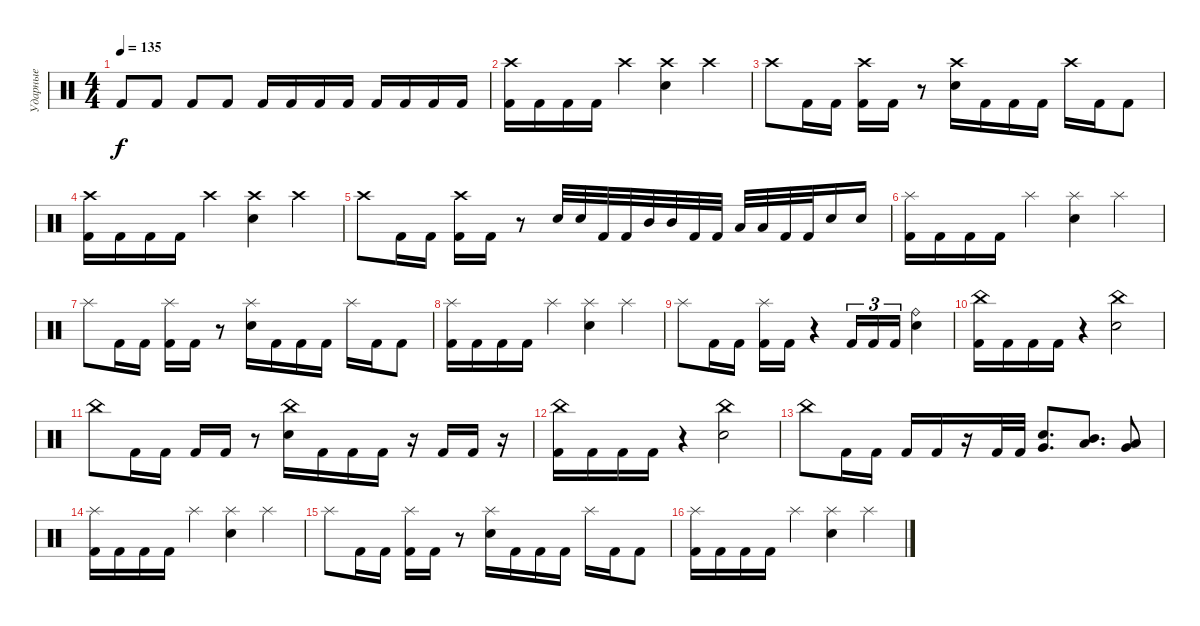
\track ("Ударные" "Ударные") {instrument percussion}
\staff {score}
\articulation defaults
\ts (4 4)
\tempo 135
\clef neutral
\ks c "Kick (hit) 2".8{dy f} "Kick (hit) 2".8 "Kick (hit) 2".8 "Kick (hit) 2".8 "Kick (hit) 2".16 "Kick (hit) 2".16 "Kick (hit) 2".16 "Kick (hit) 2".16 "Kick (hit) 2".16 "Kick (hit) 2".16 "Kick (hit) 2".16 "Kick (hit) 2".16
|
("Crash high (hit)" "Kick (hit) 2").16 "Kick (hit) 2".16 "Kick (hit) 2".16 "Kick (hit) 2".16 "Crash high (hit)".4 ("Crash high (hit)" "Electric Snare (hit)").4 "Crash high (hit)".4 |
"Crash high (hit)".8 "Kick (hit) 2".16 "Kick (hit) 2".16 ("Crash high (hit)" "Kick (hit) 2").16 "Kick (hit) 2".16 r.8 ("Crash high (hit)" "Electric Snare (hit)").16 "Kick (hit) 2".16 "Kick (hit) 2".16 "Kick (hit) 2".16 "Crash high (hit)".16 "Kick (hit) 2".16 "Kick (hit) 2".8 |
("Crash high (hit)" "Kick (hit) 2").16 "Kick (hit) 2".16 "Kick (hit) 2".16 "Kick (hit) 2".16 "Crash high (hit)".4 ("Crash high (hit)" "Electric Snare (hit)").4 "Crash high (hit)".4 |
"Crash high (hit)".8 "Kick (hit) 2".16 "Kick (hit) 2".16 ("Crash high (hit)" "Kick (hit) 2").16 "Kick (hit) 2".16 r.8 "Electric Snare (hit)".32 "Electric Snare (hit)".32 "Kick (hit) 2".32 "Kick (hit) 2".32 "Mid Tom (hit)".32 "Mid Tom (hit)".32 "Kick (hit) 2".32 "Kick (hit) 2".32 "Low Tom (hit)".32 "Low Tom (hit)".32 "Kick (hit) 2".32 "Kick (hit) 2".32 "Electric Snare (hit)".16 "Electric Snare (hit)".16 |
("Splash (hit)" "Kick (hit) 2").16 "Kick (hit) 2".16 "Kick (hit) 2".16 "Kick (hit) 2".16 "Splash (hit)".4 ("Splash (hit)" "Electric Snare (hit)").4 "Splash (hit)".4 |
"Splash (hit)".8 "Kick (hit) 2".16 "Kick (hit) 2".16 ("Splash (hit)" "Kick (hit) 2").16 "Kick (hit) 2".16 r.8 ("Splash (hit)" "Electric Snare (hit)").16 "Kick (hit) 2".16 "Kick (hit) 2".16 "Kick (hit) 2".16 "Splash (hit)".16 "Kick (hit) 2".16 "Kick (hit) 2".8 |
("Splash (hit)" "Kick (hit) 2").16 "Kick (hit) 2".16 "Kick (hit) 2".16 "Kick (hit) 2".16 "Splash (hit)".4 ("Splash (hit)" "Electric Snare (hit)").4 "Splash (hit)".4 |
"Splash (hit)".8 "Kick (hit) 2".16 "Kick (hit) 2".16 ("Splash (hit)" "Kick (hit) 2").16 "Kick (hit) 2".16 r.4 "Kick (hit) 2".16{tu (3 2)} "Kick (hit) 2".16{tu (3 2)} "Kick (hit) 2".16{tu (3 2)} ("Ride (bell)" "Electric Snare (hit)").4 |
("China (hit)" "Kick (hit) 2").16 "Kick (hit) 2".16 "Kick (hit) 2".16 "Kick (hit) 2".16 r.4 ("China (hit)" "Electric Snare (hit)").2 |
"China (hit)".8 "Kick (hit) 2".16 "Kick (hit) 2".16 "Kick (hit) 2".16 "Kick (hit) 2".16 r.8 ("China (hit)" "Electric Snare (hit)").16 "Kick (hit) 2".16 "Kick (hit) 2".16 "Kick (hit) 2".16 r.16 "Kick (hit) 2".16 "Kick (hit) 2".16 r.16 |
("China (hit)" "Kick (hit) 2").16 "Kick (hit) 2".16 "Kick (hit) 2".16 "Kick (hit) 2".16 r.4 ("China (hit)" "Electric Snare (hit)").2 |
"China (hit)".8 "Kick (hit) 2".16 "Kick (hit) 2".16 "Kick (hit) 2".16 "Kick (hit) 2".16 r.16 "Kick (hit) 2".32 "Kick (hit) 2".32 ("Electric Snare (hit)" "Very Low Tom (hit)").8{d} ("Mid Tom (hit)" "Low Tom (hit)").8{d} ("Low Tom (hit)" "Very Low Tom (hit)").8 |
("Splash (hit)" "Kick (hit) 2").16 "Kick (hit) 2".16 "Kick (hit) 2".16 "Kick (hit) 2".16 "Splash (hit)".4 ("Splash (hit)" "Electric Snare (hit)").4 "Splash (hit)".4 |
"Splash (hit)".8 "Kick (hit) 2".16 "Kick (hit) 2".16 ("Splash (hit)" "Kick (hit) 2").16 "Kick (hit) 2".16 r.8 ("Splash (hit)" "Electric Snare (hit)").16 "Kick (hit) 2".16 "Kick (hit) 2".16 "Kick (hit) 2".16 "Splash (hit)".16 "Kick (hit) 2".16 "Kick (hit) 2".8 |
("Splash (hit)" "Kick (hit) 2").16 "Kick (hit) 2".16 "Kick (hit) 2".16 "Kick (hit) 2".16 "Splash (hit)".4 ("Splash (hit)" "Electric Snare (hit)").4 "Splash (hit)".4
